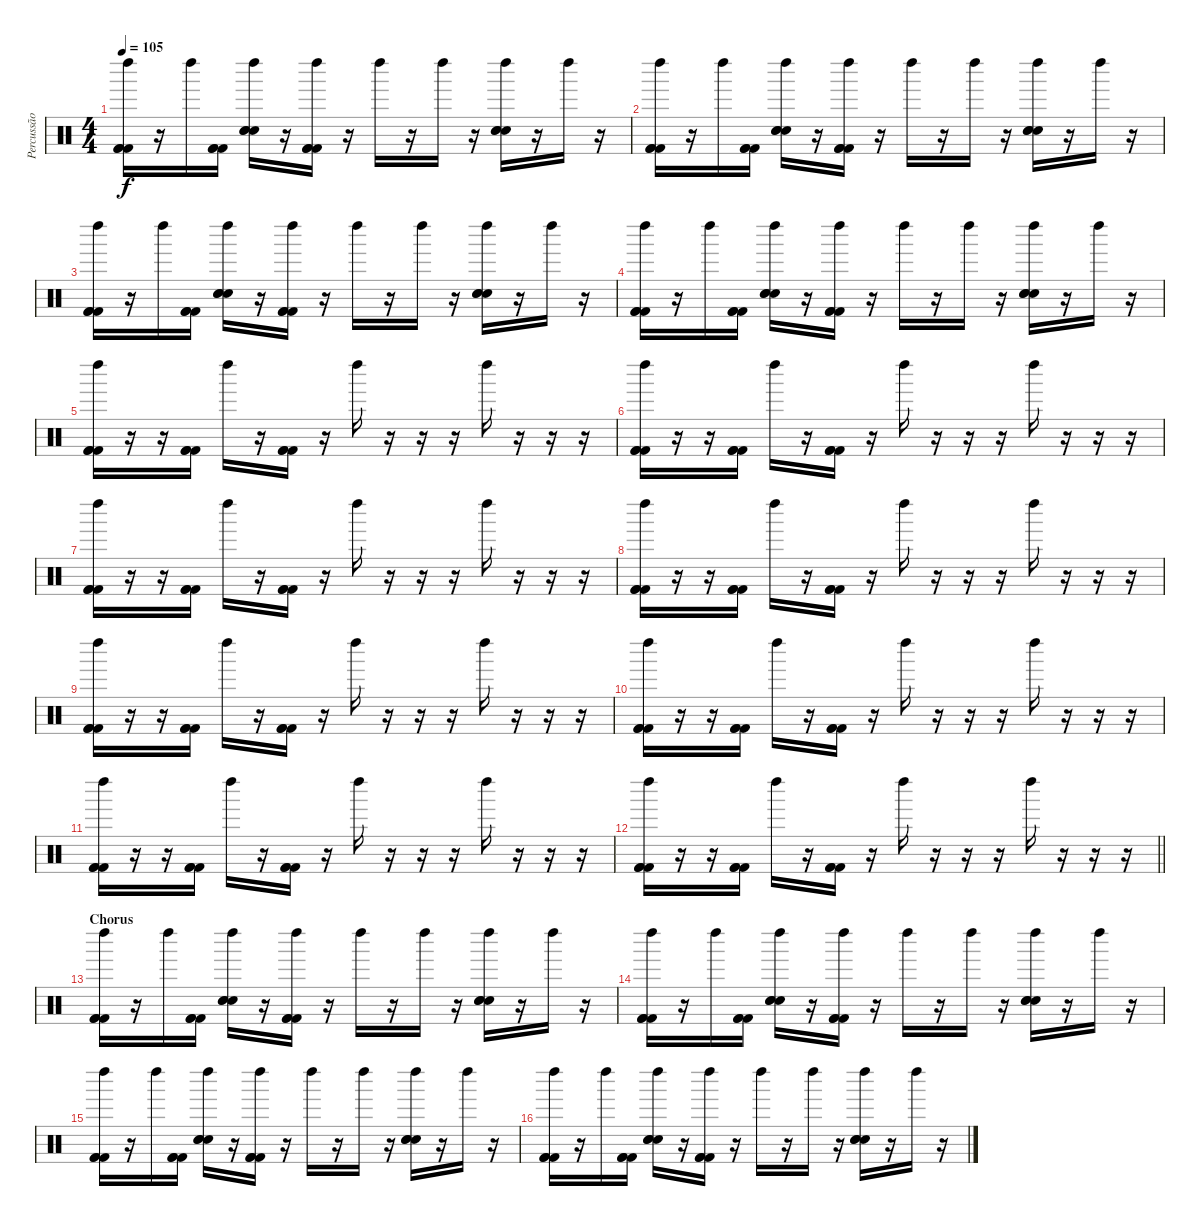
\track ("Percussão" "Percussão") {instrument percussion}
\staff {score}
\articulation defaults
\ts (4 4)
\tempo 105
\clef neutral
\ks c
("Left Maraca (hit)" "Kick (hit) 2" "Kick (hit) 2" "Kick (hit) 2").16{dy f} r.16 "Left Maraca (hit)".16 ("Kick (hit) 2" "Kick (hit) 2" "Kick (hit) 2").16 ("Left Maraca (hit)" "Hand Clap (hit)" "Hand Clap (hit)" "Hand Clap (hit)").16 r.16 ("Left Maraca (hit)" "Kick (hit) 2" "Kick (hit) 2" "Kick (hit) 2").16 r.16 "Left Maraca (hit)".16 r.16 "Left Maraca (hit)".16 r.16 ("Left Maraca (hit)" "Hand Clap (hit)" "Hand Clap (hit)" "Hand Clap (hit)").16 r.16 "Left Maraca (hit)".16 r.16 |
("Left Maraca (hit)" "Kick (hit) 2" "Kick (hit) 2" "Kick (hit) 2").16 r.16 "Left Maraca (hit)".16 ("Kick (hit) 2" "Kick (hit) 2" "Kick (hit) 2").16 ("Left Maraca (hit)" "Hand Clap (hit)" "Hand Clap (hit)" "Hand Clap (hit)").16 r.16 ("Left Maraca (hit)" "Kick (hit) 2" "Kick (hit) 2" "Kick (hit) 2").16 r.16 "Left Maraca (hit)".16 r.16 "Left Maraca (hit)".16 r.16 ("Left Maraca (hit)" "Hand Clap (hit)" "Hand Clap (hit)" "Hand Clap (hit)").16 r.16 "Left Maraca (hit)".16 r.16 |
("Left Maraca (hit)" "Kick (hit) 2" "Kick (hit) 2" "Kick (hit) 2").16 r.16 "Left Maraca (hit)".16 ("Kick (hit) 2" "Kick (hit) 2" "Kick (hit) 2").16 ("Left Maraca (hit)" "Hand Clap (hit)" "Hand Clap (hit)" "Hand Clap (hit)").16 r.16 ("Left Maraca (hit)" "Kick (hit) 2" "Kick (hit) 2" "Kick (hit) 2").16 r.16 "Left Maraca (hit)".16 r.16 "Left Maraca (hit)".16 r.16 ("Left Maraca (hit)" "Hand Clap (hit)" "Hand Clap (hit)" "Hand Clap (hit)").16 r.16 "Left Maraca (hit)".16 r.16 |
("Left Maraca (hit)" "Kick (hit) 2" "Kick (hit) 2" "Kick (hit) 2").16 r.16 "Left Maraca (hit)".16 ("Kick (hit) 2" "Kick (hit) 2" "Kick (hit) 2").16 ("Left Maraca (hit)" "Hand Clap (hit)" "Hand Clap (hit)" "Hand Clap (hit)").16 r.16 ("Left Maraca (hit)" "Kick (hit) 2" "Kick (hit) 2" "Kick (hit) 2").16 r.16 "Left Maraca (hit)".16 r.16 "Left Maraca (hit)".16 r.16 ("Left Maraca (hit)" "Hand Clap (hit)" "Hand Clap (hit)" "Hand Clap (hit)").16 r.16 "Left Maraca (hit)".16 r.16 |
("Left Maraca (hit)" "Kick (hit) 2" "Kick (hit) 2" "Kick (hit) 2").16 r.16 r.16 ("Kick (hit) 2" "Kick (hit) 2" "Kick (hit) 2").16 "Left Maraca (hit)".16 r.16 ("Kick (hit) 2" "Kick (hit) 2" "Kick (hit) 2").16 r.16 "Left Maraca (hit)".16 r.16 r.16 r.16 "Left Maraca (hit)".16 r.16 r.16 r.16 |
("Left Maraca (hit)" "Kick (hit) 2" "Kick (hit) 2" "Kick (hit) 2").16 r.16 r.16 ("Kick (hit) 2" "Kick (hit) 2" "Kick (hit) 2").16 "Left Maraca (hit)".16 r.16 ("Kick (hit) 2" "Kick (hit) 2" "Kick (hit) 2").16 r.16 "Left Maraca (hit)".16 r.16 r.16 r.16 "Left Maraca (hit)".16 r.16 r.16 r.16 |
("Left Maraca (hit)" "Kick (hit) 2" "Kick (hit) 2" "Kick (hit) 2").16 r.16 r.16 ("Kick (hit) 2" "Kick (hit) 2" "Kick (hit) 2").16 "Left Maraca (hit)".16 r.16 ("Kick (hit) 2" "Kick (hit) 2" "Kick (hit) 2").16 r.16 "Left Maraca (hit)".16 r.16 r.16 r.16 "Left Maraca (hit)".16 r.16 r.16 r.16 |
("Left Maraca (hit)" "Kick (hit) 2" "Kick (hit) 2" "Kick (hit) 2").16 r.16 r.16 ("Kick (hit) 2" "Kick (hit) 2" "Kick (hit) 2").16 "Left Maraca (hit)".16 r.16 ("Kick (hit) 2" "Kick (hit) 2" "Kick (hit) 2").16 r.16 "Left Maraca (hit)".16 r.16 r.16 r.16 "Left Maraca (hit)".16 r.16 r.16 r.16 |
("Left Maraca (hit)" "Kick (hit) 2" "Kick (hit) 2" "Kick (hit) 2").16 r.16 r.16 ("Kick (hit) 2" "Kick (hit) 2" "Kick (hit) 2").16 "Left Maraca (hit)".16 r.16 ("Kick (hit) 2" "Kick (hit) 2" "Kick (hit) 2").16 r.16 "Left Maraca (hit)".16 r.16 r.16 r.16 "Left Maraca (hit)".16 r.16 r.16 r.16 |
("Left Maraca (hit)" "Kick (hit) 2" "Kick (hit) 2" "Kick (hit) 2").16 r.16 r.16 ("Kick (hit) 2" "Kick (hit) 2" "Kick (hit) 2").16 "Left Maraca (hit)".16 r.16 ("Kick (hit) 2" "Kick (hit) 2" "Kick (hit) 2").16 r.16 "Left Maraca (hit)".16 r.16 r.16 r.16 "Left Maraca (hit)".16 r.16 r.16 r.16 |
("Left Maraca (hit)" "Kick (hit) 2" "Kick (hit) 2" "Kick (hit) 2").16 r.16 r.16 ("Kick (hit) 2" "Kick (hit) 2" "Kick (hit) 2").16 "Left Maraca (hit)".16 r.16 ("Kick (hit) 2" "Kick (hit) 2" "Kick (hit) 2").16 r.16 "Left Maraca (hit)".16 r.16 r.16 r.16 "Left Maraca (hit)".16 r.16 r.16 r.16 |
\barLineRight lightlight
("Left Maraca (hit)" "Kick (hit) 2" "Kick (hit) 2" "Kick (hit) 2").16 r.16 r.16 ("Kick (hit) 2" "Kick (hit) 2" "Kick (hit) 2").16 "Left Maraca (hit)".16 r.16 ("Kick (hit) 2" "Kick (hit) 2" "Kick (hit) 2").16 r.16 "Left Maraca (hit)".16 r.16 r.16 r.16 "Left Maraca (hit)".16 r.16 r.16 r.16 |
\section ("" "Chorus")
("Left Maraca (hit)" "Kick (hit) 2" "Kick (hit) 2" "Kick (hit) 2").16 r.16 "Left Maraca (hit)".16 ("Kick (hit) 2" "Kick (hit) 2" "Kick (hit) 2").16 ("Left Maraca (hit)" "Hand Clap (hit)" "Hand Clap (hit)" "Hand Clap (hit)").16 r.16 ("Left Maraca (hit)" "Kick (hit) 2" "Kick (hit) 2" "Kick (hit) 2").16 r.16 "Left Maraca (hit)".16 r.16 "Left Maraca (hit)".16 r.16 ("Left Maraca (hit)" "Hand Clap (hit)" "Hand Clap (hit)" "Hand Clap (hit)").16 r.16 "Left Maraca (hit)".16 r.16 |
("Left Maraca (hit)" "Kick (hit) 2" "Kick (hit) 2" "Kick (hit) 2").16 r.16 "Left Maraca (hit)".16 ("Kick (hit) 2" "Kick (hit) 2" "Kick (hit) 2").16 ("Left Maraca (hit)" "Hand Clap (hit)" "Hand Clap (hit)" "Hand Clap (hit)").16 r.16 ("Left Maraca (hit)" "Kick (hit) 2" "Kick (hit) 2" "Kick (hit) 2").16 r.16 "Left Maraca (hit)".16 r.16 "Left Maraca (hit)".16 r.16 ("Left Maraca (hit)" "Hand Clap (hit)" "Hand Clap (hit)" "Hand Clap (hit)").16 r.16 "Left Maraca (hit)".16 r.16 |
("Left Maraca (hit)" "Kick (hit) 2" "Kick (hit) 2" "Kick (hit) 2").16 r.16 "Left Maraca (hit)".16 ("Kick (hit) 2" "Kick (hit) 2" "Kick (hit) 2").16 ("Left Maraca (hit)" "Hand Clap (hit)" "Hand Clap (hit)" "Hand Clap (hit)").16 r.16 ("Left Maraca (hit)" "Kick (hit) 2" "Kick (hit) 2" "Kick (hit) 2").16 r.16 "Left Maraca (hit)".16 r.16 "Left Maraca (hit)".16 r.16 ("Left Maraca (hit)" "Hand Clap (hit)" "Hand Clap (hit)" "Hand Clap (hit)").16 r.16 "Left Maraca (hit)".16 r.16 |
("Left Maraca (hit)" "Kick (hit) 2" "Kick (hit) 2" "Kick (hit) 2").16 r.16 "Left Maraca (hit)".16 ("Kick (hit) 2" "Kick (hit) 2" "Kick (hit) 2").16 ("Left Maraca (hit)" "Hand Clap (hit)" "Hand Clap (hit)" "Hand Clap (hit)").16 r.16 ("Left Maraca (hit)" "Kick (hit) 2" "Kick (hit) 2" "Kick (hit) 2").16 r.16 "Left Maraca (hit)".16 r.16 "Left Maraca (hit)".16 r.16 ("Left Maraca (hit)" "Hand Clap (hit)" "Hand Clap (hit)" "Hand Clap (hit)").16 r.16 "Left Maraca (hit)".16 r.16
